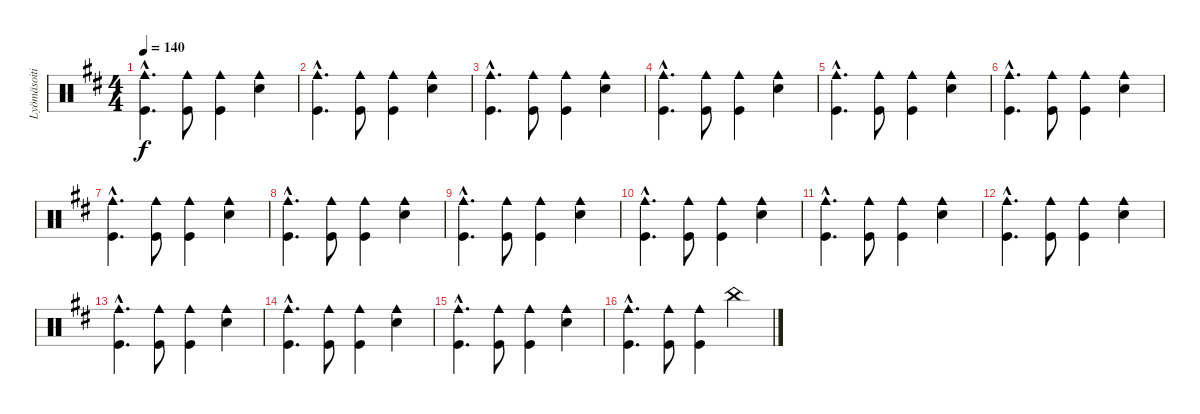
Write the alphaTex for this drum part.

\track ("Lyömäsoitin" "Lyömäsoiti") {instrument percussion}
\staff {score}
\articulation defaults
\ts (4 4)
\tempo 140
\clef neutral
\ks d
("Cowbell medium (hit)"{hac} "Kick (hit)"{hac}).4{d dy f} ("Cowbell medium (hit)" "Kick (hit)").8 ("Cowbell medium (hit)" "Kick (hit)").4 ("Cowbell medium (hit)" "Snare (hit) 2").4 |
("Cowbell medium (hit)"{hac} "Kick (hit)"{hac}).4{d} ("Cowbell medium (hit)" "Kick (hit)").8 ("Cowbell medium (hit)" "Kick (hit)").4 ("Cowbell medium (hit)" "Snare (hit) 2").4 |
("Cowbell medium (hit)"{hac} "Kick (hit)"{hac}).4{d} ("Cowbell medium (hit)" "Kick (hit)").8 ("Cowbell medium (hit)" "Kick (hit)").4 ("Cowbell medium (hit)" "Snare (hit) 2").4 |
("Cowbell medium (hit)"{hac} "Kick (hit)"{hac}).4{d} ("Cowbell medium (hit)" "Kick (hit)").8 ("Cowbell medium (hit)" "Kick (hit)").4 ("Cowbell medium (hit)" "Snare (hit) 2").4 |
("Cowbell medium (hit)"{hac} "Kick (hit)"{hac}).4{d} ("Cowbell medium (hit)" "Kick (hit)").8 ("Cowbell medium (hit)" "Kick (hit)").4 ("Cowbell medium (hit)" "Snare (hit) 2").4 |
("Cowbell medium (hit)"{hac} "Kick (hit)"{hac}).4{d} ("Cowbell medium (hit)" "Kick (hit)").8 ("Cowbell medium (hit)" "Kick (hit)").4 ("Cowbell medium (hit)" "Snare (hit) 2").4 |
("Cowbell medium (hit)"{hac} "Kick (hit)"{hac}).4{d} ("Cowbell medium (hit)" "Kick (hit)").8 ("Cowbell medium (hit)" "Kick (hit)").4 ("Cowbell medium (hit)" "Snare (hit) 2").4 |
("Cowbell medium (hit)"{hac} "Kick (hit)"{hac}).4{d} ("Cowbell medium (hit)" "Kick (hit)").8 ("Cowbell medium (hit)" "Kick (hit)").4 ("Cowbell medium (hit)" "Snare (hit) 2").4 |
("Cowbell medium (hit)"{hac} "Kick (hit)"{hac}).4{d} ("Cowbell medium (hit)" "Kick (hit)").8 ("Cowbell medium (hit)" "Kick (hit)").4 ("Cowbell medium (hit)" "Snare (hit) 2").4 |
("Cowbell medium (hit)"{hac} "Kick (hit)"{hac}).4{d} ("Cowbell medium (hit)" "Kick (hit)").8 ("Cowbell medium (hit)" "Kick (hit)").4 ("Cowbell medium (hit)" "Snare (hit) 2").4 |
("Cowbell medium (hit)"{hac} "Kick (hit)"{hac}).4{d} ("Cowbell medium (hit)" "Kick (hit)").8 ("Cowbell medium (hit)" "Kick (hit)").4 ("Cowbell medium (hit)" "Snare (hit) 2").4 |
("Cowbell medium (hit)"{hac} "Kick (hit)"{hac}).4{d} ("Cowbell medium (hit)" "Kick (hit)").8 ("Cowbell medium (hit)" "Kick (hit)").4 ("Cowbell medium (hit)" "Snare (hit) 2").4 |
("Cowbell medium (hit)"{hac} "Kick (hit)"{hac}).4{d} ("Cowbell medium (hit)" "Kick (hit)").8 ("Cowbell medium (hit)" "Kick (hit)").4 ("Cowbell medium (hit)" "Snare (hit) 2").4 |
("Cowbell medium (hit)"{hac} "Kick (hit)"{hac}).4{d} ("Cowbell medium (hit)" "Kick (hit)").8 ("Cowbell medium (hit)" "Kick (hit)").4 ("Cowbell medium (hit)" "Snare (hit) 2").4 |
("Cowbell medium (hit)"{hac} "Kick (hit)"{hac}).4{d} ("Cowbell medium (hit)" "Kick (hit)").8 ("Cowbell medium (hit)" "Kick (hit)").4 ("Cowbell medium (hit)" "Snare (hit) 2").4 |
("Cowbell medium (hit)"{hac} "Kick (hit)"{hac}).4{d} ("Cowbell medium (hit)" "Kick (hit)").8 ("Cowbell medium (hit)" "Kick (hit)").4 "China (hit)".4
